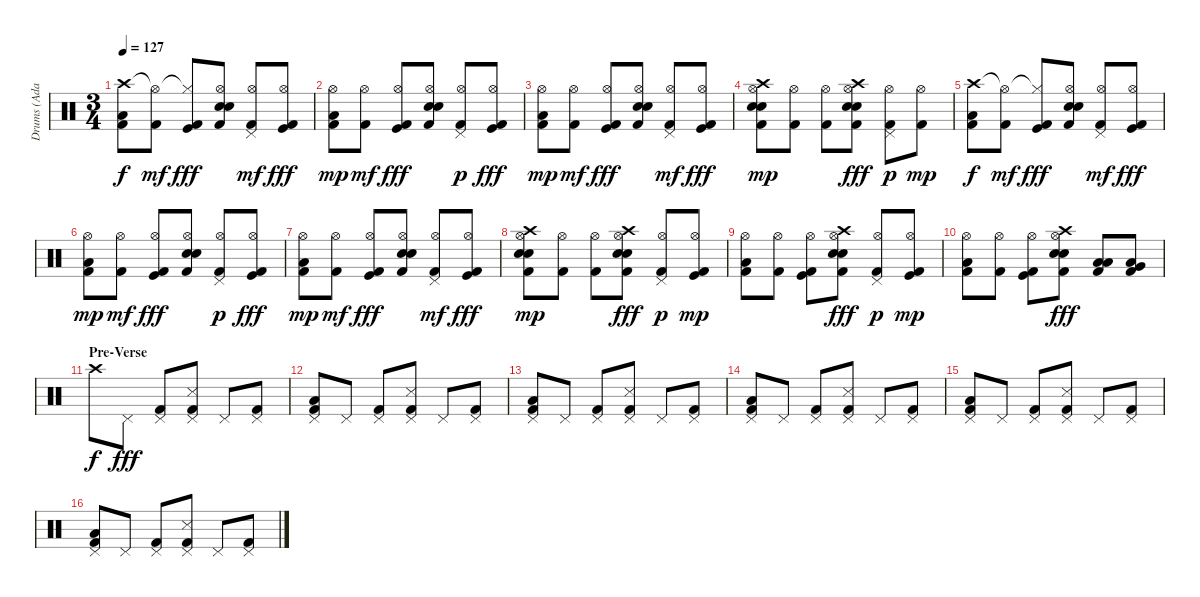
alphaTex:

\track ("Drums (Adam)" "Drums (Ada") {instrument percussion}
\staff {score}
\articulation defaults
\ts (3 4)
\tempo 127
\clef neutral
\ks c
("Crash high (hit)" "Low Tom (hit)" "Kick (hit) 2").8{dy f} ("Hi-Hat (open)"{t} "Kick (hit) 2").8{dy mf} ("Hi-Hat (closed)"{t} "Kick (hit)" "Kick (hit) 2").8{dy fff} ("Hi-Hat (open)" "Electric Snare (hit)" "Electric Snare (hit)" "Kick (hit) 2").8 ("Hi-Hat (open)" "Pedal Hi-Hat (hit)" "Kick (hit) 2").8{dy mf} ("Hi-Hat (open)" "Kick (hit)" "Kick (hit) 2").8{dy fff} |
("Hi-Hat (open)" "Low Tom (hit)" "Kick (hit) 2").8{dy mp} ("Hi-Hat (open)" "Kick (hit) 2").8{dy mf} ("Hi-Hat (open)" "Kick (hit)" "Kick (hit) 2").8{dy fff} ("Hi-Hat (open)" "Electric Snare (hit)" "Electric Snare (hit)" "Kick (hit) 2").8 ("Hi-Hat (open)" "Pedal Hi-Hat (hit)" "Kick (hit) 2").8{dy p} ("Hi-Hat (open)" "Kick (hit)" "Kick (hit) 2").8{dy fff} |
("Hi-Hat (open)" "Low Tom (hit)" "Kick (hit) 2").8{dy mp} ("Hi-Hat (open)" "Kick (hit) 2").8{dy mf} ("Hi-Hat (open)" "Kick (hit)" "Kick (hit) 2").8{dy fff} ("Hi-Hat (open)" "Electric Snare (hit)" "Electric Snare (hit)" "Kick (hit) 2").8 ("Hi-Hat (open)" "Pedal Hi-Hat (hit)" "Kick (hit) 2").8{dy mf} ("Hi-Hat (open)" "Kick (hit)" "Kick (hit) 2").8{dy fff} |
("Crash high (hit)" "Hi-Hat (open)" "Electric Snare (hit)" "Electric Snare (hit)" "Kick (hit) 2").8{dy mp} ("Hi-Hat (open)" "Kick (hit) 2").8 ("Hi-Hat (open)" "Kick (hit) 2").8 ("Crash high (hit)" "Hi-Hat (open)" "Electric Snare (hit)" "Electric Snare (hit)" "Kick (hit) 2").8{dy fff} ("Hi-Hat (open)" "Pedal Hi-Hat (hit)" "Kick (hit) 2").8{dy p} ("Hi-Hat (open)" "Kick (hit) 2").8{dy mp} |
("Crash high (hit)" "Low Tom (hit)" "Kick (hit) 2").8{dy f} ("Hi-Hat (open)"{t} "Kick (hit) 2").8{dy mf} ("Hi-Hat (closed)"{t} "Kick (hit)" "Kick (hit) 2").8{dy fff} ("Hi-Hat (open)" "Electric Snare (hit)" "Electric Snare (hit)" "Kick (hit) 2").8 ("Hi-Hat (open)" "Pedal Hi-Hat (hit)" "Kick (hit) 2").8{dy mf} ("Hi-Hat (open)" "Kick (hit)" "Kick (hit) 2").8{dy fff} |
("Hi-Hat (open)" "Low Tom (hit)" "Kick (hit) 2").8{dy mp} ("Hi-Hat (open)" "Kick (hit) 2").8{dy mf} ("Hi-Hat (open)" "Kick (hit)" "Kick (hit) 2").8{dy fff} ("Hi-Hat (open)" "Electric Snare (hit)" "Electric Snare (hit)" "Kick (hit) 2").8 ("Hi-Hat (open)" "Pedal Hi-Hat (hit)" "Kick (hit) 2").8{dy p} ("Hi-Hat (open)" "Kick (hit)" "Kick (hit) 2").8{dy fff} |
("Hi-Hat (open)" "Low Tom (hit)" "Kick (hit) 2").8{dy mp} ("Hi-Hat (open)" "Kick (hit) 2").8{dy mf} ("Hi-Hat (open)" "Kick (hit)" "Kick (hit) 2").8{dy fff} ("Hi-Hat (open)" "Electric Snare (hit)" "Electric Snare (hit)" "Kick (hit) 2").8 ("Hi-Hat (open)" "Pedal Hi-Hat (hit)" "Kick (hit) 2").8{dy mf} ("Hi-Hat (open)" "Kick (hit)" "Kick (hit) 2").8{dy fff} |
("Crash high (hit)" "Hi-Hat (open)" "Electric Snare (hit)" "Electric Snare (hit)" "Kick (hit) 2").8{dy mp} ("Hi-Hat (open)" "Kick (hit) 2").8 ("Hi-Hat (open)" "Kick (hit) 2").8 ("Crash high (hit)" "Hi-Hat (open)" "Electric Snare (hit)" "Electric Snare (hit)" "Kick (hit) 2").8{dy fff} ("Hi-Hat (open)" "Pedal Hi-Hat (hit)" "Kick (hit) 2").8{dy p} ("Hi-Hat (open)" "Kick (hit)" "Kick (hit) 2").8{dy mp} |
("Hi-Hat (open)" "Low Tom (hit)" "Kick (hit) 2").8 ("Hi-Hat (open)" "Kick (hit) 2").8 ("Hi-Hat (open)" "Kick (hit)" "Kick (hit) 2").8 ("Crash high (hit)" "Hi-Hat (open)" "Electric Snare (hit)" "Electric Snare (hit)" "Kick (hit) 2").8{dy fff} ("Hi-Hat (open)" "Pedal Hi-Hat (hit)" "Kick (hit) 2").8{dy p} ("Hi-Hat (open)" "Kick (hit)" "Kick (hit) 2").8{dy mp} |
("Hi-Hat (open)" "Low Tom (hit)" "Kick (hit) 2").8 ("Hi-Hat (open)" "Kick (hit) 2").8 ("Hi-Hat (open)" "Kick (hit)" "Kick (hit) 2").8 ("Crash high (hit)" "Hi-Hat (open)" "Electric Snare (hit)" "Electric Snare (hit)" "Kick (hit) 2").8{dy fff} ("Low Tom (hit)" "Kick (hit) 2" "Low Floor Tom (hit)").8 ("Very Low Tom (hit)" "Kick (hit) 2" "Low Floor Tom (hit)").8 |
\section ("" "Pre-Verse")
"Crash high (hit)".8{dy f} "Pedal Hi-Hat (hit)".8{dy fff} ("Pedal Hi-Hat (hit)" "Kick (hit) 2").8 ("Pedal Hi-Hat (hit)" "Snare (side stick) 3" "Kick (hit) 2").8 "Pedal Hi-Hat (hit)".8 ("Pedal Hi-Hat (hit)" "Kick (hit) 2").8 |
("Pedal Hi-Hat (hit)" "Low Tom (hit)" "Kick (hit) 2").8 "Pedal Hi-Hat (hit)".8 ("Pedal Hi-Hat (hit)" "Kick (hit) 2").8 ("Pedal Hi-Hat (hit)" "Snare (side stick) 3" "Kick (hit) 2").8 "Pedal Hi-Hat (hit)".8 ("Pedal Hi-Hat (hit)" "Kick (hit) 2").8 |
("Pedal Hi-Hat (hit)" "Low Tom (hit)" "Kick (hit) 2").8 "Pedal Hi-Hat (hit)".8 ("Pedal Hi-Hat (hit)" "Kick (hit) 2").8 ("Pedal Hi-Hat (hit)" "Snare (side stick) 3" "Kick (hit) 2").8 "Pedal Hi-Hat (hit)".8 ("Pedal Hi-Hat (hit)" "Kick (hit) 2").8 |
("Pedal Hi-Hat (hit)" "Low Tom (hit)" "Kick (hit) 2").8 "Pedal Hi-Hat (hit)".8 ("Pedal Hi-Hat (hit)" "Kick (hit) 2").8 ("Pedal Hi-Hat (hit)" "Snare (side stick) 3" "Kick (hit) 2").8 "Pedal Hi-Hat (hit)".8 ("Pedal Hi-Hat (hit)" "Kick (hit) 2").8 |
("Pedal Hi-Hat (hit)" "Low Tom (hit)" "Kick (hit) 2").8 "Pedal Hi-Hat (hit)".8 ("Pedal Hi-Hat (hit)" "Kick (hit) 2").8 ("Pedal Hi-Hat (hit)" "Snare (side stick) 3" "Kick (hit) 2").8 "Pedal Hi-Hat (hit)".8 ("Pedal Hi-Hat (hit)" "Kick (hit) 2").8 |
("Pedal Hi-Hat (hit)" "Low Tom (hit)" "Kick (hit) 2").8 "Pedal Hi-Hat (hit)".8 ("Pedal Hi-Hat (hit)" "Kick (hit) 2").8 ("Pedal Hi-Hat (hit)" "Snare (side stick) 3" "Kick (hit) 2").8 "Pedal Hi-Hat (hit)".8 ("Pedal Hi-Hat (hit)" "Kick (hit) 2").8
